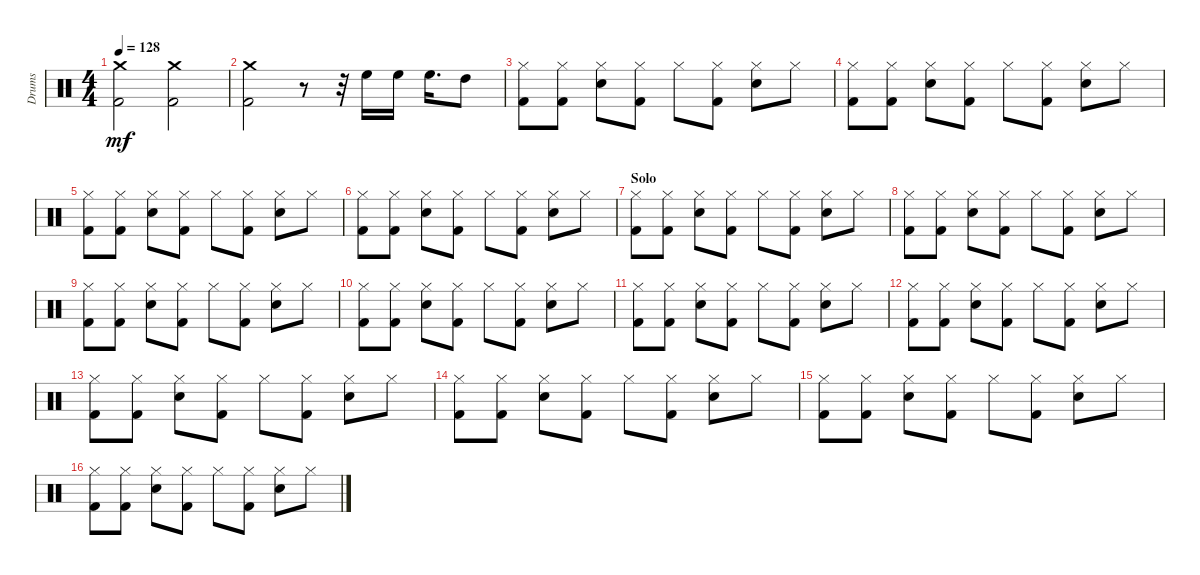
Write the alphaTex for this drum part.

\track ("Drums" "Drums") {instrument percussion}
\staff {score}
\articulation defaults
\ts (4 4)
\tempo 128
\clef neutral
\ks c
("Crash medium (hit)" "Kick (hit) 2").2{dy mf} ("Crash medium (hit)" "Kick (hit) 2").2 |
("Crash medium (hit)" "Kick (hit) 2").2 r.8 r.32 "High Floor Tom (hit)".16 "High Floor Tom (hit)".16 "High Floor Tom (hit)".16{d} "High Tom (hit)".8 |
("Hi-Hat (closed)" "Kick (hit) 2").8 ("Hi-Hat (closed)" "Kick (hit) 2").8 ("Hi-Hat (closed)" "Snare (hit) 2").8 ("Hi-Hat (closed)" "Kick (hit) 2").8 "Hi-Hat (closed)".8 ("Hi-Hat (closed)" "Kick (hit) 2").8 ("Hi-Hat (closed)" "Snare (hit) 2").8 "Hi-Hat (closed)".8 |
("Hi-Hat (closed)" "Kick (hit) 2").8 ("Hi-Hat (closed)" "Kick (hit) 2").8 ("Hi-Hat (closed)" "Snare (hit) 2").8 ("Hi-Hat (closed)" "Kick (hit) 2").8 "Hi-Hat (closed)".8 ("Hi-Hat (closed)" "Kick (hit) 2").8 ("Hi-Hat (closed)" "Snare (hit) 2").8 "Hi-Hat (closed)".8 |
("Hi-Hat (closed)" "Kick (hit) 2").8 ("Hi-Hat (closed)" "Kick (hit) 2").8 ("Hi-Hat (closed)" "Snare (hit) 2").8 ("Hi-Hat (closed)" "Kick (hit) 2").8 "Hi-Hat (closed)".8 ("Hi-Hat (closed)" "Kick (hit) 2").8 ("Hi-Hat (closed)" "Snare (hit) 2").8 "Hi-Hat (closed)".8 |
("Hi-Hat (closed)" "Kick (hit) 2").8 ("Hi-Hat (closed)" "Kick (hit) 2").8 ("Hi-Hat (closed)" "Snare (hit) 2").8 ("Hi-Hat (closed)" "Kick (hit) 2").8 "Hi-Hat (closed)".8 ("Hi-Hat (closed)" "Kick (hit) 2").8 ("Hi-Hat (closed)" "Snare (hit) 2").8 "Hi-Hat (closed)".8 |
\section ("" "Solo")
("Hi-Hat (closed)" "Kick (hit) 2").8 ("Hi-Hat (closed)" "Kick (hit) 2").8 ("Hi-Hat (closed)" "Snare (hit) 2").8 ("Hi-Hat (closed)" "Kick (hit) 2").8 "Hi-Hat (closed)".8 ("Hi-Hat (closed)" "Kick (hit) 2").8 ("Hi-Hat (closed)" "Snare (hit) 2").8 "Hi-Hat (closed)".8 |
("Hi-Hat (closed)" "Kick (hit) 2").8 ("Hi-Hat (closed)" "Kick (hit) 2").8 ("Hi-Hat (closed)" "Snare (hit) 2").8 ("Hi-Hat (closed)" "Kick (hit) 2").8 "Hi-Hat (closed)".8 ("Hi-Hat (closed)" "Kick (hit) 2").8 ("Hi-Hat (closed)" "Snare (hit) 2").8 "Hi-Hat (closed)".8 |
("Hi-Hat (closed)" "Kick (hit) 2").8 ("Hi-Hat (closed)" "Kick (hit) 2").8 ("Hi-Hat (closed)" "Snare (hit) 2").8 ("Hi-Hat (closed)" "Kick (hit) 2").8 "Hi-Hat (closed)".8 ("Hi-Hat (closed)" "Kick (hit) 2").8 ("Hi-Hat (closed)" "Snare (hit) 2").8 "Hi-Hat (closed)".8 |
("Hi-Hat (closed)" "Kick (hit) 2").8 ("Hi-Hat (closed)" "Kick (hit) 2").8 ("Hi-Hat (closed)" "Snare (hit) 2").8 ("Hi-Hat (closed)" "Kick (hit) 2").8 "Hi-Hat (closed)".8 ("Hi-Hat (closed)" "Kick (hit) 2").8 ("Hi-Hat (closed)" "Snare (hit) 2").8 "Hi-Hat (closed)".8 |
("Hi-Hat (closed)" "Kick (hit) 2").8 ("Hi-Hat (closed)" "Kick (hit) 2").8 ("Hi-Hat (closed)" "Snare (hit) 2").8 ("Hi-Hat (closed)" "Kick (hit) 2").8 "Hi-Hat (closed)".8 ("Hi-Hat (closed)" "Kick (hit) 2").8 ("Hi-Hat (closed)" "Snare (hit) 2").8 "Hi-Hat (closed)".8 |
("Hi-Hat (closed)" "Kick (hit) 2").8 ("Hi-Hat (closed)" "Kick (hit) 2").8 ("Hi-Hat (closed)" "Snare (hit) 2").8 ("Hi-Hat (closed)" "Kick (hit) 2").8 "Hi-Hat (closed)".8 ("Hi-Hat (closed)" "Kick (hit) 2").8 ("Hi-Hat (closed)" "Snare (hit) 2").8 "Hi-Hat (closed)".8 |
("Hi-Hat (closed)" "Kick (hit) 2").8 ("Hi-Hat (closed)" "Kick (hit) 2").8 ("Hi-Hat (closed)" "Snare (hit) 2").8 ("Hi-Hat (closed)" "Kick (hit) 2").8 "Hi-Hat (closed)".8 ("Hi-Hat (closed)" "Kick (hit) 2").8 ("Hi-Hat (closed)" "Snare (hit) 2").8 "Hi-Hat (closed)".8 |
("Hi-Hat (closed)" "Kick (hit) 2").8 ("Hi-Hat (closed)" "Kick (hit) 2").8 ("Hi-Hat (closed)" "Snare (hit) 2").8 ("Hi-Hat (closed)" "Kick (hit) 2").8 "Hi-Hat (closed)".8 ("Hi-Hat (closed)" "Kick (hit) 2").8 ("Hi-Hat (closed)" "Snare (hit) 2").8 "Hi-Hat (closed)".8 |
("Hi-Hat (closed)" "Kick (hit) 2").8 ("Hi-Hat (closed)" "Kick (hit) 2").8 ("Hi-Hat (closed)" "Snare (hit) 2").8 ("Hi-Hat (closed)" "Kick (hit) 2").8 "Hi-Hat (closed)".8 ("Hi-Hat (closed)" "Kick (hit) 2").8 ("Hi-Hat (closed)" "Snare (hit) 2").8 "Hi-Hat (closed)".8 |
("Hi-Hat (closed)" "Kick (hit) 2").8 ("Hi-Hat (closed)" "Kick (hit) 2").8 ("Hi-Hat (closed)" "Snare (hit) 2").8 ("Hi-Hat (closed)" "Kick (hit) 2").8 "Hi-Hat (closed)".8 ("Hi-Hat (closed)" "Kick (hit) 2").8 ("Hi-Hat (closed)" "Snare (hit) 2").8 "Hi-Hat (closed)".8
